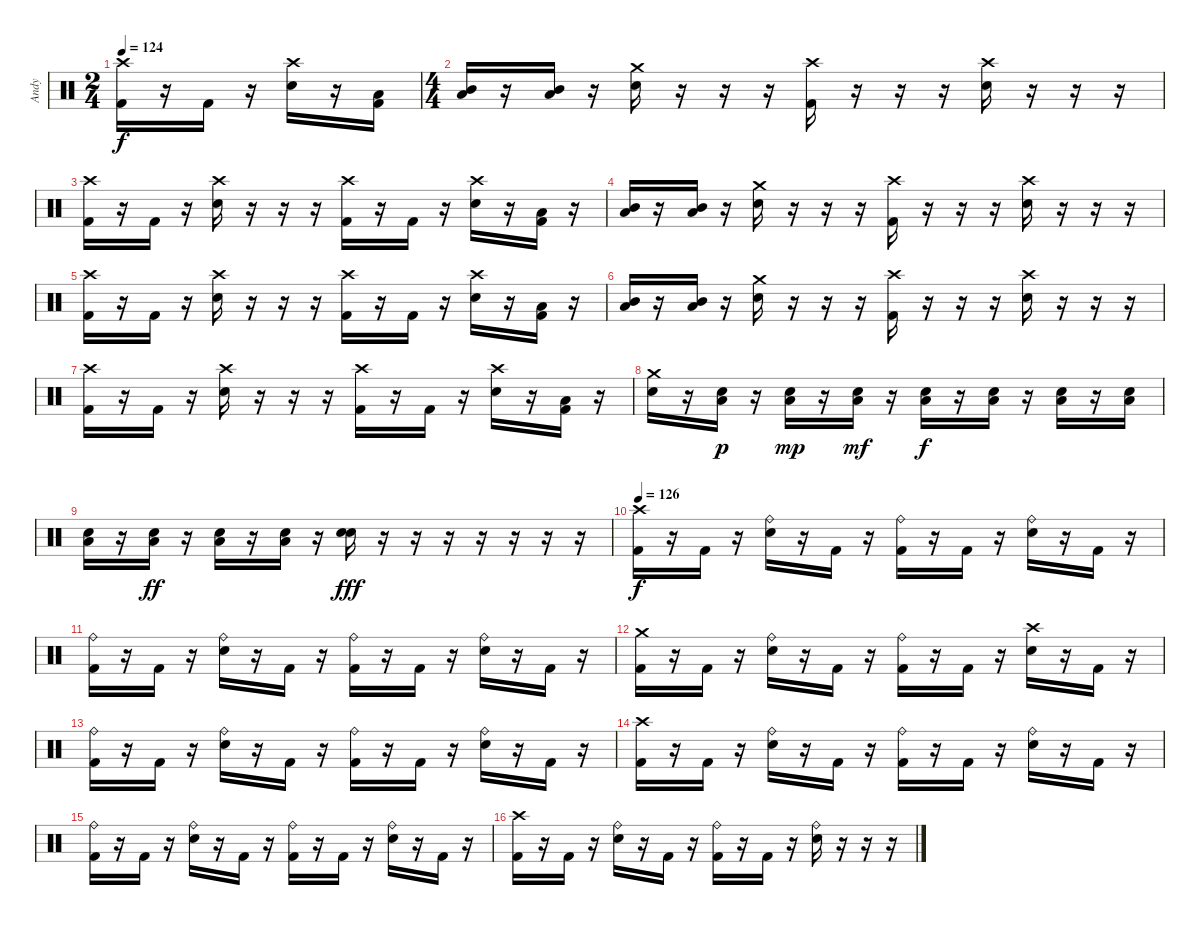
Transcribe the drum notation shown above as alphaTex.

\track ("Andy" "Andy") {instrument percussion}
\staff {score}
\articulation defaults
\ts (2 4)
\tempo 124
\clef neutral
\ks c
("Crash high (hit)" "Kick (hit) 2").16{dy f} r.16 "Kick (hit) 2".16 r.16 ("Crash high (hit)" "Electric Snare (hit)").16 r.16 ("Low Tom (hit)" "Kick (hit) 2").16 |
\ts (4 4)
("Low Tom (hit)" "Mid Tom (hit)").16 r.16 ("Low Tom (hit)" "Mid Tom (hit)").16 r.16 ("Crash medium (hit)" "Electric Snare (hit)").16 r.16 r.16 r.16 ("Crash high (hit)" "Kick (hit) 2").16 r.16 r.16 r.16 ("Crash high (hit)" "Electric Snare (hit)").16 r.16 r.16 r.16 |
("Crash high (hit)" "Kick (hit) 2").16 r.16 "Kick (hit) 2".16 r.16 ("Crash high (hit)" "Electric Snare (hit)").16 r.16 r.16 r.16 ("Crash high (hit)" "Kick (hit) 2").16 r.16 "Kick (hit) 2".16 r.16 ("Crash high (hit)" "Electric Snare (hit)").16 r.16 ("Low Tom (hit)" "Kick (hit) 2").16 r.16 |
("Low Tom (hit)" "Mid Tom (hit)").16 r.16 ("Low Tom (hit)" "Mid Tom (hit)").16 r.16 ("Crash medium (hit)" "Electric Snare (hit)").16 r.16 r.16 r.16 ("Crash high (hit)" "Kick (hit) 2").16 r.16 r.16 r.16 ("Crash high (hit)" "Electric Snare (hit)").16 r.16 r.16 r.16 |
("Crash high (hit)" "Kick (hit) 2").16 r.16 "Kick (hit) 2".16 r.16 ("Crash high (hit)" "Electric Snare (hit)").16 r.16 r.16 r.16 ("Crash high (hit)" "Kick (hit) 2").16 r.16 "Kick (hit) 2".16 r.16 ("Crash high (hit)" "Electric Snare (hit)").16 r.16 ("Low Tom (hit)" "Kick (hit) 2").16 r.16 |
("Low Tom (hit)" "Mid Tom (hit)").16 r.16 ("Low Tom (hit)" "Mid Tom (hit)").16 r.16 ("Crash medium (hit)" "Electric Snare (hit)").16 r.16 r.16 r.16 ("Crash high (hit)" "Kick (hit) 2").16 r.16 r.16 r.16 ("Crash high (hit)" "Electric Snare (hit)").16 r.16 r.16 r.16 |
("Crash high (hit)" "Kick (hit) 2").16 r.16 "Kick (hit) 2".16 r.16 ("Crash high (hit)" "Electric Snare (hit)").16 r.16 r.16 r.16 ("Crash high (hit)" "Kick (hit) 2").16 r.16 "Kick (hit) 2".16 r.16 ("Crash high (hit)" "Electric Snare (hit)").16 r.16 ("Low Tom (hit)" "Kick (hit) 2").16 r.16 |
("Crash medium (hit)" "Electric Snare (hit)").16 r.16 ("Electric Snare (hit)" "Low Tom (hit)").16{dy p} r.16 ("Electric Snare (hit)" "Low Tom (hit)").16{dy mp} r.16 ("Electric Snare (hit)" "Low Tom (hit)").16{dy mf} r.16 ("Electric Snare (hit)" "Low Tom (hit)").16{dy f} r.16 ("Electric Snare (hit)" "Low Tom (hit)").16 r.16 ("Electric Snare (hit)" "Low Tom (hit)").16 r.16 ("Electric Snare (hit)" "Low Tom (hit)").16 |
("Electric Snare (hit)" "Low Tom (hit)").16 r.16 ("Electric Snare (hit)" "Low Tom (hit)").16{dy ff} r.16 ("Electric Snare (hit)" "Low Tom (hit)").16 r.16 ("Electric Snare (hit)" "Low Tom (hit)").16 r.16 ("Electric Snare (hit)" "Electric Snare (hit)").16{dy fff} r.16 r.16 r.16 r.16 r.16 r.16 r.16 |
\tempo 126
("Crash high (hit)" "Kick (hit) 2").16{dy f} r.16 "Kick (hit) 2".16 r.16 ("Ride (bell)" "Electric Snare (hit)").16 r.16 "Kick (hit) 2".16 r.16 ("Ride (bell)" "Kick (hit) 2").16 r.16 "Kick (hit) 2".16 r.16 ("Ride (bell)" "Electric Snare (hit)").16 r.16 "Kick (hit) 2".16 r.16 |
("Ride (bell)" "Kick (hit) 2").16 r.16 "Kick (hit) 2".16 r.16 ("Ride (bell)" "Electric Snare (hit)").16 r.16 "Kick (hit) 2".16 r.16 ("Ride (bell)" "Kick (hit) 2").16 r.16 "Kick (hit) 2".16 r.16 ("Ride (bell)" "Electric Snare (hit)").16 r.16 "Kick (hit) 2".16 r.16 |
("Crash medium (hit)" "Kick (hit) 2").16 r.16 "Kick (hit) 2".16 r.16 ("Ride (bell)" "Electric Snare (hit)").16 r.16 "Kick (hit) 2".16 r.16 ("Ride (bell)" "Kick (hit) 2").16 r.16 "Kick (hit) 2".16 r.16 ("Crash high (hit)" "Electric Snare (hit)").16 r.16 "Kick (hit) 2".16 r.16 |
("Ride (bell)" "Kick (hit) 2").16 r.16 "Kick (hit) 2".16 r.16 ("Ride (bell)" "Electric Snare (hit)").16 r.16 "Kick (hit) 2".16 r.16 ("Ride (bell)" "Kick (hit) 2").16 r.16 "Kick (hit) 2".16 r.16 ("Ride (bell)" "Electric Snare (hit)").16 r.16 "Kick (hit) 2".16 r.16 |
("Crash high (hit)" "Kick (hit) 2").16 r.16 "Kick (hit) 2".16 r.16 ("Ride (bell)" "Electric Snare (hit)").16 r.16 "Kick (hit) 2".16 r.16 ("Ride (bell)" "Kick (hit) 2").16 r.16 "Kick (hit) 2".16 r.16 ("Ride (bell)" "Electric Snare (hit)").16 r.16 "Kick (hit) 2".16 r.16 |
("Ride (bell)" "Kick (hit) 2").16 r.16 "Kick (hit) 2".16 r.16 ("Ride (bell)" "Electric Snare (hit)").16 r.16 "Kick (hit) 2".16 r.16 ("Ride (bell)" "Kick (hit) 2").16 r.16 "Kick (hit) 2".16 r.16 ("Ride (bell)" "Electric Snare (hit)").16 r.16 "Kick (hit) 2".16 r.16 |
("Crash high (hit)" "Kick (hit) 2").16 r.16 "Kick (hit) 2".16 r.16 ("Ride (bell)" "Electric Snare (hit)").16 r.16 "Kick (hit) 2".16 r.16 ("Ride (bell)" "Kick (hit) 2").16 r.16 "Kick (hit) 2".16 r.16 ("Ride (bell)" "Electric Snare (hit)").16 r.16 r.16 r.16
